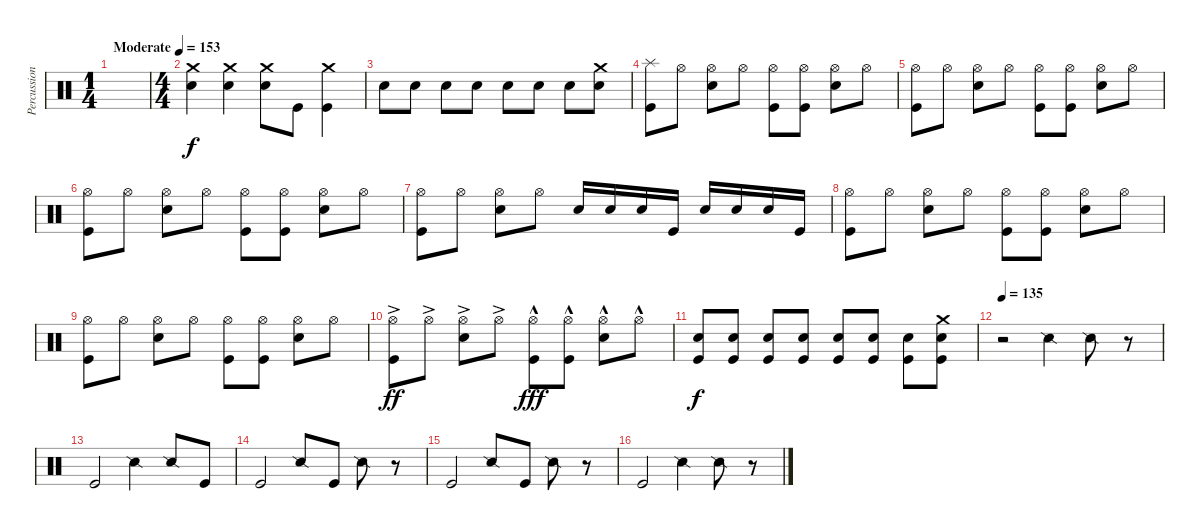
\track ("Percussion" "Percussion") {instrument percussion}
\staff {score}
\articulation defaults
\ts (1 4)
\tempo (153 "Moderate")
\clef neutral
\ks c
|
\ts (4 4)
("Crash medium (hit)" "Snare (hit) 2").4 ("Crash medium (hit)" "Snare (hit) 2").4 ("Crash medium (hit)" "Snare (hit) 2").8 "Kick (hit)".8 ("Crash medium (hit)" "Kick (hit)").4 |
"Snare (hit) 2".8 "Snare (hit) 2".8 "Snare (hit) 2".8 "Snare (hit) 2".8 "Snare (hit) 2".8 "Snare (hit) 2".8 "Snare (hit) 2".8 ("Crash medium (hit)" "Snare (hit) 2").8 |
("Splash (hit)" "Kick (hit)").8 "Hi-Hat (open)".8 ("Hi-Hat (open)" "Snare (hit) 2").8 "Hi-Hat (open)".8 ("Hi-Hat (open)" "Kick (hit)").8 ("Hi-Hat (open)" "Kick (hit)").8 ("Hi-Hat (open)" "Snare (hit) 2").8 "Hi-Hat (open)".8 |
("Hi-Hat (open)" "Kick (hit)").8 "Hi-Hat (open)".8 ("Hi-Hat (open)" "Snare (hit) 2").8 "Hi-Hat (open)".8 ("Hi-Hat (open)" "Kick (hit)").8 ("Hi-Hat (open)" "Kick (hit)").8 ("Hi-Hat (open)" "Snare (hit) 2").8 "Hi-Hat (open)".8 |
("Hi-Hat (open)" "Kick (hit)").8 "Hi-Hat (open)".8 ("Hi-Hat (open)" "Snare (hit) 2").8 "Hi-Hat (open)".8 ("Hi-Hat (open)" "Kick (hit)").8 ("Hi-Hat (open)" "Kick (hit)").8 ("Hi-Hat (open)" "Snare (hit) 2").8 "Hi-Hat (open)".8 |
("Hi-Hat (open)" "Kick (hit)").8 "Hi-Hat (open)".8 ("Hi-Hat (open)" "Snare (hit) 2").8 "Hi-Hat (open)".8 "Snare (hit) 2".16 "Snare (hit) 2".16 "Snare (hit) 2".16 "Kick (hit)".16 "Snare (hit) 2".16 "Snare (hit) 2".16 "Snare (hit) 2".16 "Kick (hit)".16 |
("Hi-Hat (open)" "Kick (hit)").8 "Hi-Hat (open)".8 ("Hi-Hat (open)" "Snare (hit) 2").8 "Hi-Hat (open)".8 ("Hi-Hat (open)" "Kick (hit)").8 ("Hi-Hat (open)" "Kick (hit)").8 ("Hi-Hat (open)" "Snare (hit) 2").8 "Hi-Hat (open)".8 |
("Hi-Hat (open)" "Kick (hit)").8 "Hi-Hat (open)".8 ("Hi-Hat (open)" "Snare (hit) 2").8 "Hi-Hat (open)".8 ("Hi-Hat (open)" "Kick (hit)").8 ("Hi-Hat (open)" "Kick (hit)").8 ("Hi-Hat (open)" "Snare (hit) 2").8 "Hi-Hat (open)".8 |
("Hi-Hat (open)"{ac} "Kick (hit)").8{dy ff} "Hi-Hat (open)"{ac}.8 ("Hi-Hat (open)"{ac} "Snare (hit) 2").8 "Hi-Hat (open)"{ac}.8 ("Hi-Hat (open)"{hac} "Kick (hit)").8{dy fff} ("Hi-Hat (open)"{hac} "Kick (hit)").8 ("Hi-Hat (open)"{hac} "Snare (hit) 2").8 "Hi-Hat (open)"{hac}.8 |
("Snare (hit) 2" "Kick (hit)").8{dy f} ("Snare (hit) 2" "Kick (hit)").8 ("Snare (hit) 2" "Kick (hit)").8 ("Snare (hit) 2" "Kick (hit)").8 ("Snare (hit) 2" "Kick (hit)").8 ("Snare (hit) 2" "Kick (hit)").8 ("Snare (hit) 2" "Kick (hit)").8 ("Crash medium (hit)" "Snare (hit) 2" "Kick (hit)").8 |
\tempo 135
r.2 "Snare (side stick) 2".4 "Snare (side stick) 2".8 r.8 |
"Kick (hit)".2 "Snare (side stick) 2".4 "Snare (side stick) 2".8 "Kick (hit)".8 |
"Kick (hit)".2 "Snare (side stick) 2".8 "Kick (hit)".8 "Snare (side stick) 2".8 r.8 |
"Kick (hit)".2 "Snare (side stick) 2".8 "Kick (hit)".8 "Snare (side stick) 2".8 r.8 |
"Kick (hit)".2 "Snare (side stick) 2".4 "Snare (side stick) 2".8 r.8
